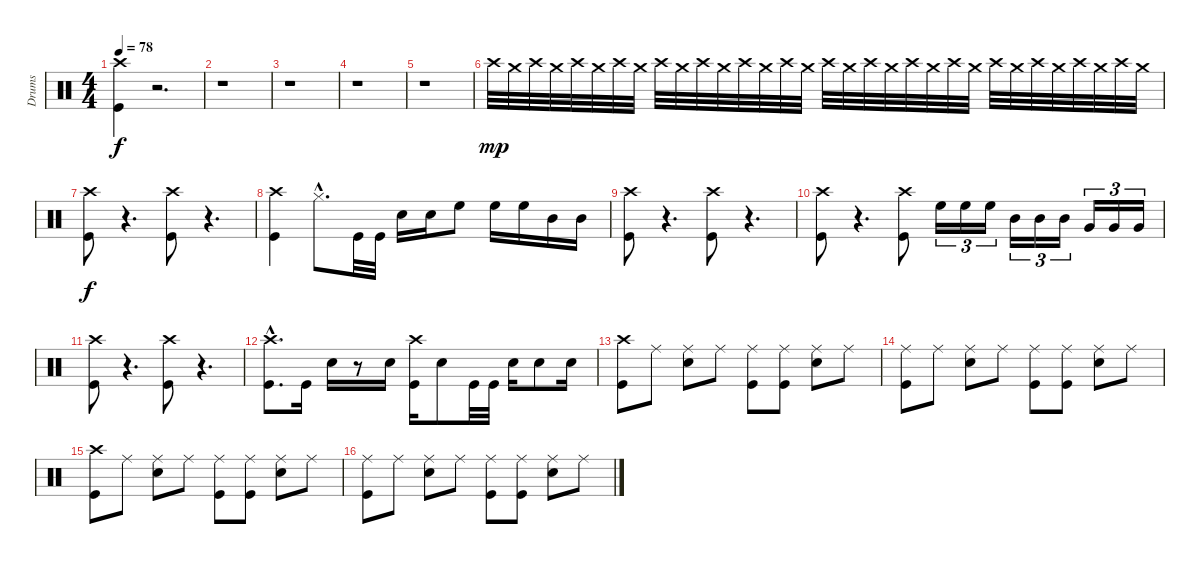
\track ("Drums" "Drums") {instrument percussion}
\staff {score}
\articulation defaults
\ts (4 4)
\tempo 78
\clef neutral
\ks c
("Kick (hit)" "Crash high (hit)").4{dy f} r.2{d} |
r.1 |
r.1 |
r.1 |
r.1 |
"Crash high (hit)".32{dy mp} "Crash medium (hit)".32 "Crash high (hit)".32 "Crash medium (hit)".32 "Crash high (hit)".32 "Crash medium (hit)".32 "Crash high (hit)".32 "Crash medium (hit)".32 "Crash high (hit)".32 "Crash medium (hit)".32 "Crash high (hit)".32 "Crash medium (hit)".32 "Crash high (hit)".32 "Crash medium (hit)".32 "Crash high (hit)".32 "Crash medium (hit)".32 "Crash high (hit)".32 "Crash medium (hit)".32 "Crash high (hit)".32 "Crash medium (hit)".32 "Crash high (hit)".32 "Crash medium (hit)".32 "Crash high (hit)".32 "Crash medium (hit)".32 "Crash high (hit)".32 "Crash medium (hit)".32 "Crash high (hit)".32 "Crash medium (hit)".32 "Crash high (hit)".32 "Crash medium (hit)".32 "Crash high (hit)".32 "Crash medium (hit)".32 |
("Kick (hit)" "Crash high (hit)").8{dy f} r.4{d} ("Kick (hit)" "Crash high (hit)").8 r.4{d} |
("Kick (hit)" "Crash high (hit)").4 "Hi-Hat (closed)"{hac}.8{d} "Kick (hit)".32 "Kick (hit)".32 "Snare (hit) 2".16 "Snare (hit) 2".16 "High Floor Tom (hit)".8 "High Floor Tom (hit)".16 "High Floor Tom (hit)".16 "Mid Tom (hit)".16 "Mid Tom (hit)".16 |
("Kick (hit)" "Crash high (hit)").8 r.4{d} ("Kick (hit)" "Crash high (hit)").8 r.4{d} |
("Kick (hit)" "Crash high (hit)").8 r.4{d} ("Kick (hit)" "Crash high (hit)").8 "High Floor Tom (hit)".16{tu (3 2)} "High Floor Tom (hit)".16{tu (3 2)} "High Floor Tom (hit)".16{tu (3 2)} "Mid Tom (hit)".16{tu (3 2)} "Mid Tom (hit)".16{tu (3 2)} "Mid Tom (hit)".16{tu (3 2)} "Very Low Tom (hit)".16{tu (3 2)} "Very Low Tom (hit)".16{tu (3 2)} "Very Low Tom (hit)".16{tu (3 2)} |
("Kick (hit)" "Crash high (hit)").8 r.4{d} ("Kick (hit)" "Crash high (hit)").8 r.4{d} |
("Kick (hit)"{hac} "Crash high (hit)"{hac}).8{d} "Kick (hit)".16 "Snare (hit) 2".16 r.8 "Snare (hit) 2".16 ("Kick (hit)" "Crash high (hit)").16 "Snare (hit) 2".8 "Kick (hit)".32 "Kick (hit)".32 "Snare (hit) 2".16 "Snare (hit) 2".8 "Snare (hit) 2".16 |
("Kick (hit)" "Crash high (hit)").8 "Ride (middle)".8 ("Snare (hit) 2" "Ride (middle)").8 "Ride (middle)".8 ("Kick (hit)" "Ride (middle)").8 ("Kick (hit)" "Ride (middle)").8 ("Snare (hit) 2" "Ride (middle)").8 "Ride (middle)".8 |
("Kick (hit)" "Ride (middle)").8 "Ride (middle)".8 ("Snare (hit) 2" "Ride (middle)").8 "Ride (middle)".8 ("Kick (hit)" "Ride (middle)").8 ("Kick (hit)" "Ride (middle)").8 ("Snare (hit) 2" "Ride (middle)").8 "Ride (middle)".8 |
("Kick (hit)" "Crash high (hit)").8 "Ride (middle)".8 ("Snare (hit) 2" "Ride (middle)").8 "Ride (middle)".8 ("Kick (hit)" "Ride (middle)").8 ("Kick (hit)" "Ride (middle)").8 ("Snare (hit) 2" "Ride (middle)").8 "Ride (middle)".8 |
("Kick (hit)" "Ride (middle)").8 "Ride (middle)".8 ("Snare (hit) 2" "Ride (middle)").8 "Ride (middle)".8 ("Kick (hit)" "Ride (middle)").8 ("Kick (hit)" "Ride (middle)").8 ("Snare (hit) 2" "Ride (middle)").8 "Ride (middle)".8
